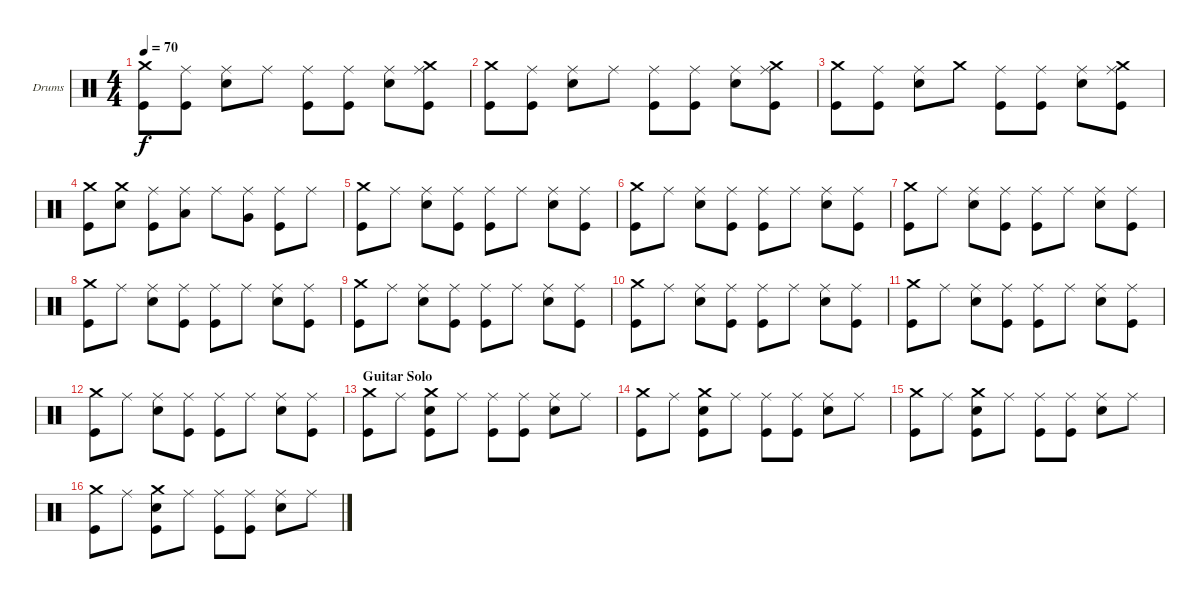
\bracketExtendMode groupsimilarinstruments
\firstSystemTrackNameOrientation horizontal
\otherSystemsTrackNameOrientation horizontal
\track ("Drumkit" "Drums") {instrument percussion}
\staff {score}
\articulation defaults
\ts (4 4)
\tempo 70
\clef neutral
\scale
0.333333
\ks c
("Crash medium (hit)" "Kick (hit)").8{dy f} ("Ride (middle)" "Kick (hit)").8 ("Ride (middle)" "Snare (hit) 2").8 "Ride (middle)".8 ("Ride (middle)" "Kick (hit)").8 ("Ride (middle)" "Kick (hit)").8 ("Ride (middle)" "Snare (hit) 2").8 ("Crash medium (hit)" "Ride (middle)" "Kick (hit)").8 |
\scale
0.333333 ("Crash medium (hit)" "Kick (hit)").8 ("Ride (middle)" "Kick (hit)").8 ("Ride (middle)" "Snare (hit) 2").8 "Ride (middle)".8 ("Ride (middle)" "Kick (hit)").8 ("Ride (middle)" "Kick (hit)").8 ("Ride (middle)" "Snare (hit) 2").8 ("Crash medium (hit)" "Ride (middle)" "Kick (hit)").8 |
\scale
0.333333 ("Crash medium (hit)" "Kick (hit)").8 ("Ride (middle)" "Kick (hit)").8 ("Ride (middle)" "Snare (hit) 2").8 "Crash medium (hit)".8 ("Ride (middle)" "Kick (hit)").8 ("Ride (middle)" "Kick (hit)").8 ("Ride (middle)" "Snare (hit) 2").8 ("Crash medium (hit)" "Ride (middle)" "Kick (hit)").8 |
\scale
0.333333 ("Crash medium (hit)" "Kick (hit)").8 ("Crash medium (hit)" "Snare (hit) 2").8 ("Ride (middle)" "Kick (hit)").8 ("Low Tom (hit)" "Ride (middle)").8 "Ride (middle)".8 ("Very Low Tom (hit)" "Ride (middle)").8 ("Ride (middle)" "Kick (hit)").8 "Ride (middle)".8 |
\scale
0.333333 ("Crash medium (hit)" "Kick (hit)").8 "Ride (middle)".8 ("Ride (middle)" "Snare (hit) 2").8 ("Ride (middle)" "Kick (hit)").8 ("Ride (middle)" "Kick (hit)").8 "Ride (middle)".8 ("Ride (middle)" "Snare (hit) 2").8 ("Ride (middle)" "Kick (hit)").8 |
\scale
0.333333 ("Crash medium (hit)" "Kick (hit)").8 "Ride (middle)".8 ("Ride (middle)" "Snare (hit) 2").8 ("Ride (middle)" "Kick (hit)").8 ("Ride (middle)" "Kick (hit)").8 "Ride (middle)".8 ("Ride (middle)" "Snare (hit) 2").8 ("Ride (middle)" "Kick (hit)").8 |
\scale
0.333333 ("Crash medium (hit)" "Kick (hit)").8 "Ride (middle)".8 ("Ride (middle)" "Snare (hit) 2").8 ("Ride (middle)" "Kick (hit)").8 ("Ride (middle)" "Kick (hit)").8 "Ride (middle)".8 ("Ride (middle)" "Snare (hit) 2").8 ("Ride (middle)" "Kick (hit)").8 |
\scale
0.333333 ("Crash medium (hit)" "Kick (hit)").8 "Ride (middle)".8 ("Ride (middle)" "Snare (hit) 2").8 ("Ride (middle)" "Kick (hit)").8 ("Ride (middle)" "Kick (hit)").8 "Ride (middle)".8 ("Ride (middle)" "Snare (hit) 2").8 ("Ride (middle)" "Kick (hit)").8 |
\scale
0.333333 ("Crash medium (hit)" "Kick (hit)").8 "Ride (middle)".8 ("Ride (middle)" "Snare (hit) 2").8 ("Ride (middle)" "Kick (hit)").8 ("Ride (middle)" "Kick (hit)").8 "Ride (middle)".8 ("Ride (middle)" "Snare (hit) 2").8 ("Ride (middle)" "Kick (hit)").8 |
\scale
0.333333 ("Crash medium (hit)" "Kick (hit)").8 "Ride (middle)".8 ("Ride (middle)" "Snare (hit) 2").8 ("Ride (middle)" "Kick (hit)").8 ("Ride (middle)" "Kick (hit)").8 "Ride (middle)".8 ("Ride (middle)" "Snare (hit) 2").8 ("Ride (middle)" "Kick (hit)").8 |
\scale
0.333333 ("Crash medium (hit)" "Kick (hit)").8 "Ride (middle)".8 ("Ride (middle)" "Snare (hit) 2").8 ("Ride (middle)" "Kick (hit)").8 ("Ride (middle)" "Kick (hit)").8 "Ride (middle)".8 ("Ride (middle)" "Snare (hit) 2").8 ("Ride (middle)" "Kick (hit)").8 |
\scale
0.333333 ("Crash medium (hit)" "Kick (hit)").8 "Ride (middle)".8 ("Ride (middle)" "Snare (hit) 2").8 ("Ride (middle)" "Kick (hit)").8 ("Ride (middle)" "Kick (hit)").8 "Ride (middle)".8 ("Ride (middle)" "Snare (hit) 2").8 ("Ride (middle)" "Kick (hit)").8 |
\section ("" "Guitar Solo")
\scale
0.333333 ("Crash medium (hit)" "Kick (hit)").8 "Ride (middle)".8 ("Crash medium (hit)" "Snare (hit) 2" "Kick (hit)").8 "Ride (middle)".8 ("Ride (middle)" "Kick (hit)").8 ("Ride (middle)" "Kick (hit)").8 ("Ride (middle)" "Snare (hit) 2").8 "Ride (middle)".8 |
\scale
0.333333 ("Crash medium (hit)" "Kick (hit)").8 "Ride (middle)".8 ("Crash medium (hit)" "Snare (hit) 2" "Kick (hit)").8 "Ride (middle)".8 ("Ride (middle)" "Kick (hit)").8 ("Ride (middle)" "Kick (hit)").8 ("Ride (middle)" "Snare (hit) 2").8 "Ride (middle)".8 |
\scale
0.333333 ("Crash medium (hit)" "Kick (hit)").8 "Ride (middle)".8 ("Crash medium (hit)" "Snare (hit) 2" "Kick (hit)").8 "Ride (middle)".8 ("Ride (middle)" "Kick (hit)").8 ("Ride (middle)" "Kick (hit)").8 ("Ride (middle)" "Snare (hit) 2").8 "Ride (middle)".8 |
\scale
0.333333 ("Crash medium (hit)" "Kick (hit)").8 "Ride (middle)".8 ("Crash medium (hit)" "Snare (hit) 2" "Kick (hit)").8 "Ride (middle)".8 ("Ride (middle)" "Kick (hit)").8 ("Ride (middle)" "Kick (hit)").8 ("Ride (middle)" "Snare (hit) 2").8 "Ride (middle)".8
